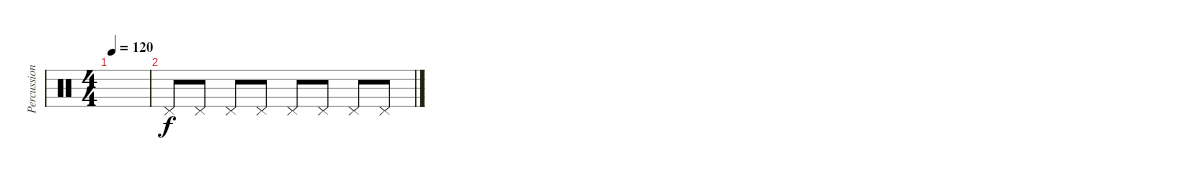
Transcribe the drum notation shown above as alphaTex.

\track ("Percussion" "Percussion") {instrument percussion}
\staff {score}
\articulation defaults
\ts (4 4)
\tempo 120
\clef neutral
\ks c
|
"Pedal Hi-Hat (hit)".8 "Pedal Hi-Hat (hit)".8 "Pedal Hi-Hat (hit)".8 "Pedal Hi-Hat (hit)".8 "Pedal Hi-Hat (hit)".8 "Pedal Hi-Hat (hit)".8 "Pedal Hi-Hat (hit)".8 "Pedal Hi-Hat (hit)".8
